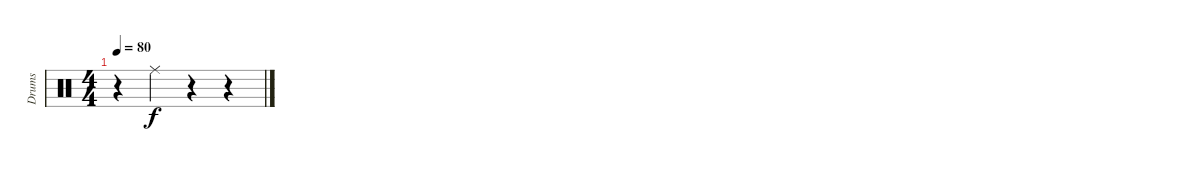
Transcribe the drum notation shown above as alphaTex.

\track ("Drums" "Drums") {instrument percussion}
\staff {score}
\articulation defaults
\ts (4 4)
\tempo 80
\clef neutral
\ks c
r.4{dy f} "Ride (middle)".4 r.4 r.4
